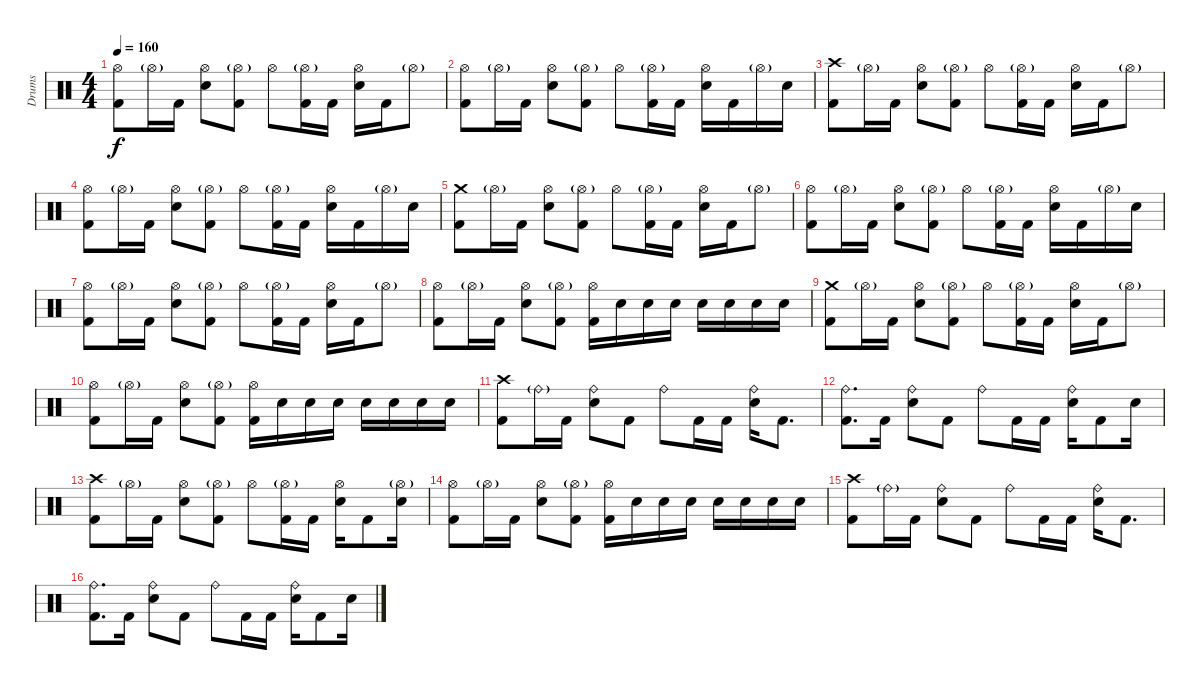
\track ("Drums" "Drums") {instrument percussion}
\staff {score}
\articulation defaults
\ts (4 4)
\tempo 160
\clef neutral
\ks c
("Hi-Hat (open)" "Kick (hit) 2").8{dy f} "Hi-Hat (open)"{g}.16 "Kick (hit) 2".16 ("Hi-Hat (open)" "Snare (hit) 2").8 ("Hi-Hat (open)"{g} "Kick (hit) 2").8 "Hi-Hat (open)".8 ("Hi-Hat (open)"{g} "Kick (hit) 2").16 "Kick (hit) 2".16 ("Hi-Hat (open)" "Snare (hit) 2").16 "Kick (hit) 2".16 "Hi-Hat (open)"{g}.8 |
("Hi-Hat (open)" "Kick (hit) 2").8 "Hi-Hat (open)"{g}.16 "Kick (hit) 2".16 ("Hi-Hat (open)" "Snare (hit) 2").8 ("Hi-Hat (open)"{g} "Kick (hit) 2").8 "Hi-Hat (open)".8 ("Hi-Hat (open)"{g} "Kick (hit) 2").16 "Kick (hit) 2".16 ("Hi-Hat (open)" "Snare (hit) 2").16 "Kick (hit) 2".16 "Hi-Hat (open)"{g}.16 "Snare (hit) 2".16 |
("Crash high (hit)" "Kick (hit) 2").8 "Hi-Hat (open)"{g}.16 "Kick (hit) 2".16 ("Hi-Hat (open)" "Snare (hit) 2").8 ("Hi-Hat (open)"{g} "Kick (hit) 2").8 "Hi-Hat (open)".8 ("Hi-Hat (open)"{g} "Kick (hit) 2").16 "Kick (hit) 2".16 ("Hi-Hat (open)" "Snare (hit) 2").16 "Kick (hit) 2".16 "Hi-Hat (open)"{g}.8 |
("Hi-Hat (open)" "Kick (hit) 2").8 "Hi-Hat (open)"{g}.16 "Kick (hit) 2".16 ("Hi-Hat (open)" "Snare (hit) 2").8 ("Hi-Hat (open)"{g} "Kick (hit) 2").8 "Hi-Hat (open)".8 ("Hi-Hat (open)"{g} "Kick (hit) 2").16 "Kick (hit) 2".16 ("Hi-Hat (open)" "Snare (hit) 2").16 "Kick (hit) 2".16 "Hi-Hat (open)"{g}.16 "Snare (hit) 2".16 |
("Crash medium (hit)" "Kick (hit) 2").8 "Hi-Hat (open)"{g}.16 "Kick (hit) 2".16 ("Hi-Hat (open)" "Snare (hit) 2").8 ("Hi-Hat (open)"{g} "Kick (hit) 2").8 "Hi-Hat (open)".8 ("Hi-Hat (open)"{g} "Kick (hit) 2").16 "Kick (hit) 2".16 ("Hi-Hat (open)" "Snare (hit) 2").16 "Kick (hit) 2".16 "Hi-Hat (open)"{g}.8 |
("Hi-Hat (open)" "Kick (hit) 2").8 "Hi-Hat (open)"{g}.16 "Kick (hit) 2".16 ("Hi-Hat (open)" "Snare (hit) 2").8 ("Hi-Hat (open)"{g} "Kick (hit) 2").8 "Hi-Hat (open)".8 ("Hi-Hat (open)"{g} "Kick (hit) 2").16 "Kick (hit) 2".16 ("Hi-Hat (open)" "Snare (hit) 2").16 "Kick (hit) 2".16 "Hi-Hat (open)"{g}.16 "Snare (hit) 2".16 |
("Hi-Hat (open)" "Kick (hit) 2").8 "Hi-Hat (open)"{g}.16 "Kick (hit) 2".16 ("Hi-Hat (open)" "Snare (hit) 2").8 ("Hi-Hat (open)"{g} "Kick (hit) 2").8 "Hi-Hat (open)".8 ("Hi-Hat (open)"{g} "Kick (hit) 2").16 "Kick (hit) 2".16 ("Hi-Hat (open)" "Snare (hit) 2").16 "Kick (hit) 2".16 "Hi-Hat (open)"{g}.8 |
("Hi-Hat (open)" "Kick (hit) 2").8 "Hi-Hat (open)"{g}.16 "Kick (hit) 2".16 ("Hi-Hat (open)" "Snare (hit) 2").8 ("Hi-Hat (open)"{g} "Kick (hit) 2").8 ("Hi-Hat (open)" "Kick (hit) 2").16 "Snare (hit) 2".16 "Snare (hit) 2".16 "Snare (hit) 2".16 "Snare (hit) 2".16 "Snare (hit) 2".16 "Snare (hit) 2".16 "Snare (hit) 2".16 |
("Crash medium (hit)" "Kick (hit) 2").8 "Hi-Hat (open)"{g}.16 "Kick (hit) 2".16 ("Hi-Hat (open)" "Snare (hit) 2").8 ("Hi-Hat (open)"{g} "Kick (hit) 2").8 "Hi-Hat (open)".8 ("Hi-Hat (open)"{g} "Kick (hit) 2").16 "Kick (hit) 2".16 ("Hi-Hat (open)" "Snare (hit) 2").16 "Kick (hit) 2".16 "Hi-Hat (open)"{g}.8 |
("Hi-Hat (open)" "Kick (hit) 2").8 "Hi-Hat (open)"{g}.16 "Kick (hit) 2".16 ("Hi-Hat (open)" "Snare (hit) 2").8 ("Hi-Hat (open)"{g} "Kick (hit) 2").8 ("Hi-Hat (open)" "Kick (hit) 2").16 "Snare (hit) 2".16 "Snare (hit) 2".16 "Snare (hit) 2".16 "Snare (hit) 2".16 "Snare (hit) 2".16 "Snare (hit) 2".16 "Snare (hit) 2".16 |
("Crash high (hit)" "Kick (hit) 2").8 "Ride (bell)"{g}.16 "Kick (hit) 2".16 ("Ride (bell)" "Snare (hit) 2").8 "Kick (hit) 2".8 "Ride (bell)".8 "Kick (hit) 2".16 "Kick (hit) 2".16 ("Ride (bell)" "Snare (hit) 2").16 "Kick (hit) 2".8{d} |
("Ride (bell)" "Kick (hit) 2").8{d} "Kick (hit) 2".16 ("Ride (bell)" "Snare (hit) 2").8 "Kick (hit) 2".8 "Ride (bell)".8 "Kick (hit) 2".16 "Kick (hit) 2".16 ("Ride (bell)" "Snare (hit) 2").16 "Kick (hit) 2".8 "Snare (hit) 2".16 |
("Crash high (hit)" "Kick (hit) 2").8 "Hi-Hat (open)"{g}.16 "Kick (hit) 2".16 ("Hi-Hat (open)" "Snare (hit) 2").8 ("Hi-Hat (open)"{g} "Kick (hit) 2").8 "Hi-Hat (open)".8 ("Hi-Hat (open)"{g} "Kick (hit) 2").16 "Kick (hit) 2".16 ("Hi-Hat (open)" "Snare (hit) 2").16 "Kick (hit) 2".8 ("Hi-Hat (open)"{g} "Snare (hit) 2").16 |
("Hi-Hat (open)" "Kick (hit) 2").8 "Hi-Hat (open)"{g}.16 "Kick (hit) 2".16 ("Hi-Hat (open)" "Snare (hit) 2").8 ("Hi-Hat (open)"{g} "Kick (hit) 2").8 ("Hi-Hat (open)" "Kick (hit) 2").16 "Snare (hit) 2".16 "Snare (hit) 2".16 "Snare (hit) 2".16 "Snare (hit) 2".16 "Snare (hit) 2".16 "Snare (hit) 2".16 "Snare (hit) 2".16 |
("Crash high (hit)" "Kick (hit) 2").8 "Ride (bell)"{g}.16 "Kick (hit) 2".16 ("Ride (bell)" "Snare (hit) 2").8 "Kick (hit) 2".8 "Ride (bell)".8 "Kick (hit) 2".16 "Kick (hit) 2".16 ("Ride (bell)" "Snare (hit) 2").16 "Kick (hit) 2".8{d} |
("Ride (bell)" "Kick (hit) 2").8{d} "Kick (hit) 2".16 ("Ride (bell)" "Snare (hit) 2").8 "Kick (hit) 2".8 "Ride (bell)".8 "Kick (hit) 2".16 "Kick (hit) 2".16 ("Ride (bell)" "Snare (hit) 2").16 "Kick (hit) 2".8 "Snare (hit) 2".16
